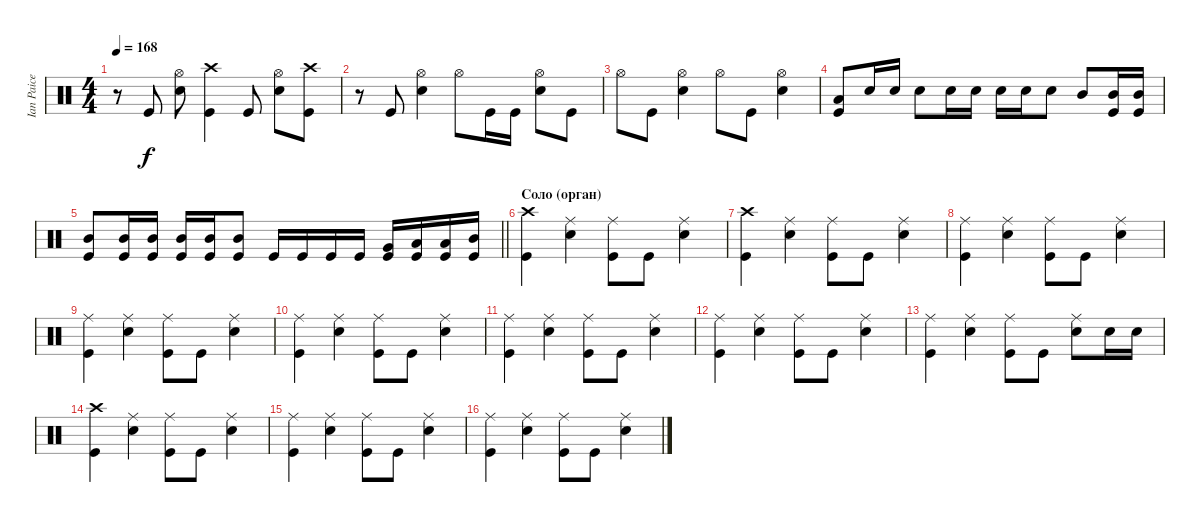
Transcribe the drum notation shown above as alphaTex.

\track ("Ian Paice" "Ian Paice") {instrument percussion}
\staff {score}
\articulation defaults
\ts (4 4)
\tempo 168
\clef neutral
\ks c
r.8{dy f} "Kick (hit)".8 ("Snare (hit) 2" "Hi-Hat (open)").8 ("Crash high (hit)" "Kick (hit)").4 "Kick (hit)".8 ("Hi-Hat (open)" "Snare (hit) 2").8 ("Crash high (hit)" "Kick (hit)").8 |
r.8 "Kick (hit)".8 ("Snare (hit) 2" "Hi-Hat (open)").4 "Hi-Hat (open)".8 "Kick (hit)".16 "Kick (hit)".16 ("Snare (hit) 2" "Hi-Hat (open)").8 "Kick (hit)".8 |
"Hi-Hat (open)".8 "Kick (hit)".8 ("Snare (hit) 2" "Hi-Hat (open)").4 "Hi-Hat (open)".8 "Kick (hit)".8 ("Snare (hit) 2" "Hi-Hat (open)").4 |
("Low Tom (hit)" "Kick (hit)").8 "Snare (hit) 2".16 "Snare (hit) 2".16 "Snare (hit) 2".8 "Snare (hit) 2".16 "Snare (hit) 2".16 "Snare (hit) 2".16 "Snare (hit) 2".16 "Snare (hit) 2".8 "Mid Tom (hit)".8 ("Mid Tom (hit)" "Kick (hit)").16 ("Mid Tom (hit)" "Kick (hit)").16 |
\barLineRight lightlight
("Kick (hit)" "Mid Tom (hit)").8 ("Mid Tom (hit)" "Kick (hit)").16 ("Mid Tom (hit)" "Kick (hit)").16 ("Mid Tom (hit)" "Kick (hit)").16 ("Mid Tom (hit)" "Kick (hit)").16 ("Mid Tom (hit)" "Kick (hit)").8 "Kick (hit)".16 "Kick (hit)".16 "Kick (hit)".16 "Kick (hit)".16 ("Kick (hit)" "Very Low Tom (hit)").16 ("Kick (hit)" "Low Tom (hit)").16 ("Kick (hit)" "Low Tom (hit)").16 ("Mid Tom (hit)" "Kick (hit)").16 |
\section ("" "Соло (орган)")
("Crash high (hit)" "Kick (hit)").4 ("Ride (middle)" "Snare (hit) 2").4 ("Ride (middle)" "Kick (hit)").8 "Kick (hit)".8 ("Ride (middle)" "Snare (hit) 2").4 |
("Crash high (hit)" "Kick (hit)").4 ("Ride (middle)" "Snare (hit) 2").4 ("Ride (middle)" "Kick (hit)").8 "Kick (hit)".8 ("Ride (middle)" "Snare (hit) 2").4 |
("Kick (hit)" "Ride (middle)").4 ("Ride (middle)" "Snare (hit) 2").4 ("Ride (middle)" "Kick (hit)").8 "Kick (hit)".8 ("Ride (middle)" "Snare (hit) 2").4 |
("Kick (hit)" "Ride (middle)").4 ("Ride (middle)" "Snare (hit) 2").4 ("Ride (middle)" "Kick (hit)").8 "Kick (hit)".8 ("Ride (middle)" "Snare (hit) 2").4 |
("Kick (hit)" "Ride (middle)").4 ("Ride (middle)" "Snare (hit) 2").4 ("Ride (middle)" "Kick (hit)").8 "Kick (hit)".8 ("Ride (middle)" "Snare (hit) 2").4 |
("Kick (hit)" "Ride (middle)").4 ("Ride (middle)" "Snare (hit) 2").4 ("Ride (middle)" "Kick (hit)").8 "Kick (hit)".8 ("Ride (middle)" "Snare (hit) 2").4 |
("Kick (hit)" "Ride (middle)").4 ("Ride (middle)" "Snare (hit) 2").4 ("Ride (middle)" "Kick (hit)").8 "Kick (hit)".8 ("Ride (middle)" "Snare (hit) 2").4 |
("Kick (hit)" "Ride (middle)").4 ("Ride (middle)" "Snare (hit) 2").4 ("Ride (middle)" "Kick (hit)").8 "Kick (hit)".8 ("Ride (middle)" "Snare (hit) 2").8 "Snare (hit) 2".16 "Snare (hit) 2".16 |
("Crash high (hit)" "Kick (hit)").4 ("Ride (middle)" "Snare (hit) 2").4 ("Ride (middle)" "Kick (hit)").8 "Kick (hit)".8 ("Ride (middle)" "Snare (hit) 2").4 |
("Kick (hit)" "Ride (middle)").4 ("Ride (middle)" "Snare (hit) 2").4 ("Ride (middle)" "Kick (hit)").8 "Kick (hit)".8 ("Ride (middle)" "Snare (hit) 2").4 |
("Kick (hit)" "Ride (middle)").4 ("Ride (middle)" "Snare (hit) 2").4 ("Ride (middle)" "Kick (hit)").8 "Kick (hit)".8 ("Ride (middle)" "Snare (hit) 2").4
